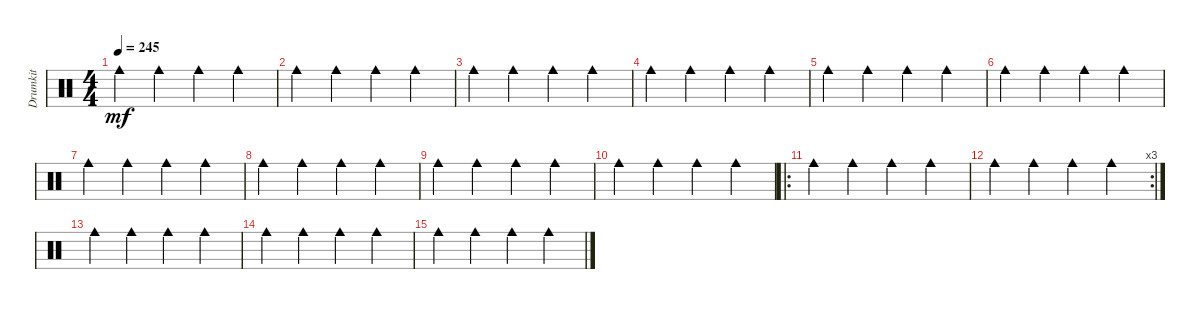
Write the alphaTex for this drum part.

\track ("Drumkit" "Drumkit") {instrument percussion}
\staff {score}
\articulation defaults
\ts (4 4)
\tempo 245
\clef neutral
\ks c "Cowbell medium (hit)".4{dy mf} "Cowbell medium (hit)".4 "Cowbell medium (hit)".4 "Cowbell medium (hit)".4
|
"Cowbell medium (hit)".4 "Cowbell medium (hit)".4 "Cowbell medium (hit)".4 "Cowbell medium (hit)".4 |
"Cowbell medium (hit)".4 "Cowbell medium (hit)".4 "Cowbell medium (hit)".4 "Cowbell medium (hit)".4 |
"Cowbell medium (hit)".4 "Cowbell medium (hit)".4 "Cowbell medium (hit)".4 "Cowbell medium (hit)".4 |
"Cowbell medium (hit)".4 "Cowbell medium (hit)".4 "Cowbell medium (hit)".4 "Cowbell medium (hit)".4 |
"Cowbell medium (hit)".4 "Cowbell medium (hit)".4 "Cowbell medium (hit)".4 "Cowbell medium (hit)".4 |
"Cowbell medium (hit)".4 "Cowbell medium (hit)".4 "Cowbell medium (hit)".4 "Cowbell medium (hit)".4 |
"Cowbell medium (hit)".4 "Cowbell medium (hit)".4 "Cowbell medium (hit)".4 "Cowbell medium (hit)".4 |
"Cowbell medium (hit)".4 "Cowbell medium (hit)".4 "Cowbell medium (hit)".4 "Cowbell medium (hit)".4 |
"Cowbell medium (hit)".4 "Cowbell medium (hit)".4 "Cowbell medium (hit)".4 "Cowbell medium (hit)".4 |
\ro "Cowbell medium (hit)".4 "Cowbell medium (hit)".4 "Cowbell medium (hit)".4 "Cowbell medium (hit)".4
|
\rc 3 "Cowbell medium (hit)".4 "Cowbell medium (hit)".4 "Cowbell medium (hit)".4 "Cowbell medium (hit)".4
|
"Cowbell medium (hit)".4 "Cowbell medium (hit)".4 "Cowbell medium (hit)".4 "Cowbell medium (hit)".4 |
"Cowbell medium (hit)".4 "Cowbell medium (hit)".4 "Cowbell medium (hit)".4 "Cowbell medium (hit)".4 |
"Cowbell medium (hit)".4 "Cowbell medium (hit)".4 "Cowbell medium (hit)".4 "Cowbell medium (hit)".4
